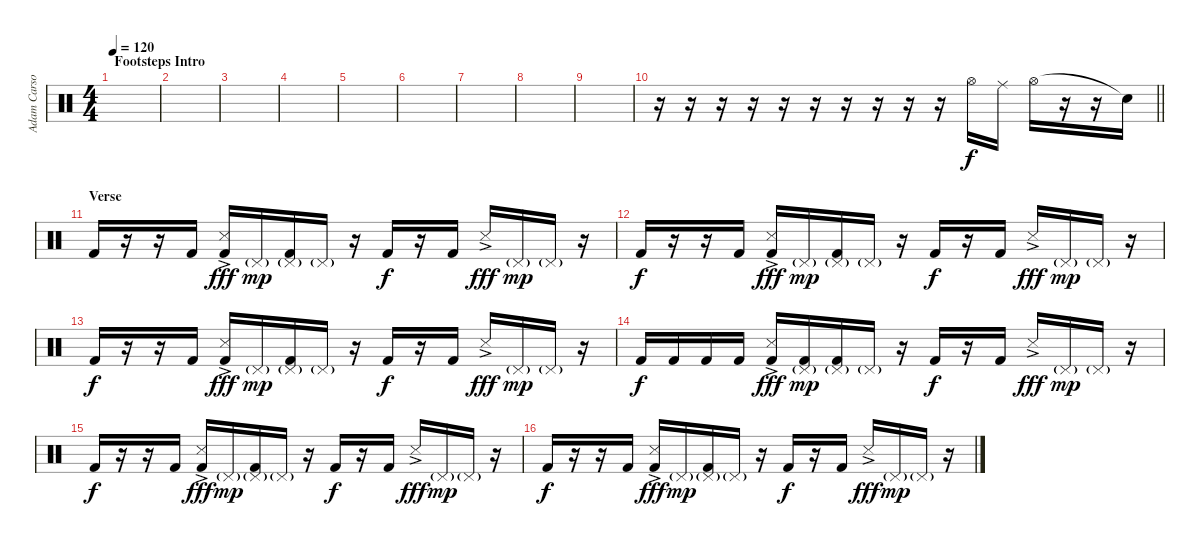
\track ("Adam Carson (Percussion)" "Adam Carso") {instrument percussion}
\staff {score}
\articulation defaults
\ts (4 4)
\section ("" "Footsteps Intro")
\tempo 120
\clef neutral
\ks c
|
|
|
|
|
|
|
|
|
\barLineRight lightlight
r.16 r.16 r.16 r.16 r.16 r.16 r.16 r.16 r.16 r.16 "Hi-Hat (open)".16 "Ride (middle)".16 "Hi-Hat (open)".16 r.16 r.16 "Snare (hit)"{t}.16 |
\section ("" "Verse")
"Kick (hit) 2".16{volume 16 balance 8} r.16 r.16 "Kick (hit) 2".16 ("Kick (hit) 2" "Snare (side stick) 3"{ac}).16{dy fff} "Pedal Hi-Hat (hit)"{g}.16{dy mp} ("Kick (hit) 2" "Pedal Hi-Hat (hit)"{g}).16 "Pedal Hi-Hat (hit)"{g}.16 r.16 "Kick (hit) 2".16{dy f} r.16 "Kick (hit) 2".16 "Snare (side stick) 3"{ac}.16{dy fff} "Pedal Hi-Hat (hit)"{g}.16{dy mp} "Pedal Hi-Hat (hit)"{g}.16 r.16 |
"Kick (hit) 2".16{dy f} r.16 r.16 "Kick (hit) 2".16 ("Kick (hit) 2" "Snare (side stick) 3"{ac}).16{dy fff} "Pedal Hi-Hat (hit)"{g}.16{dy mp} ("Kick (hit) 2" "Pedal Hi-Hat (hit)"{g}).16 "Pedal Hi-Hat (hit)"{g}.16 r.16 "Kick (hit) 2".16{dy f} r.16 "Kick (hit) 2".16 "Snare (side stick) 3"{ac}.16{dy fff} "Pedal Hi-Hat (hit)"{g}.16{dy mp} "Pedal Hi-Hat (hit)"{g}.16 r.16 |
"Kick (hit) 2".16{dy f} r.16 r.16 "Kick (hit) 2".16 ("Kick (hit) 2" "Snare (side stick) 3"{ac}).16{dy fff} "Pedal Hi-Hat (hit)"{g}.16{dy mp} ("Kick (hit) 2" "Pedal Hi-Hat (hit)"{g}).16 "Pedal Hi-Hat (hit)"{g}.16 r.16 "Kick (hit) 2".16{dy f} r.16 "Kick (hit) 2".16 "Snare (side stick) 3"{ac}.16{dy fff} "Pedal Hi-Hat (hit)"{g}.16{dy mp} "Pedal Hi-Hat (hit)"{g}.16 r.16 |
"Kick (hit) 2".16{dy f} "Kick (hit) 2".16 "Kick (hit) 2".16 "Kick (hit) 2".16 ("Kick (hit) 2" "Snare (side stick) 3"{ac}).16{dy fff} ("Kick (hit) 2" "Pedal Hi-Hat (hit)"{g}).16{dy mp} ("Kick (hit) 2" "Pedal Hi-Hat (hit)"{g}).16 "Pedal Hi-Hat (hit)"{g}.16 r.16 "Kick (hit) 2".16{dy f} r.16 "Kick (hit) 2".16 "Snare (side stick) 3"{ac}.16{dy fff} "Pedal Hi-Hat (hit)"{g}.16{dy mp} "Pedal Hi-Hat (hit)"{g}.16 r.16 |
"Kick (hit) 2".16{dy f} r.16 r.16 "Kick (hit) 2".16 ("Kick (hit) 2" "Snare (side stick) 3"{ac}).16{dy fff} "Pedal Hi-Hat (hit)"{g}.16{dy mp} ("Kick (hit) 2" "Pedal Hi-Hat (hit)"{g}).16 "Pedal Hi-Hat (hit)"{g}.16 r.16 "Kick (hit) 2".16{dy f} r.16 "Kick (hit) 2".16 "Snare (side stick) 3"{ac}.16{dy fff} "Pedal Hi-Hat (hit)"{g}.16{dy mp} "Pedal Hi-Hat (hit)"{g}.16 r.16 |
"Kick (hit) 2".16{dy f} r.16 r.16 "Kick (hit) 2".16 ("Kick (hit) 2" "Snare (side stick) 3"{ac}).16{dy fff} "Pedal Hi-Hat (hit)"{g}.16{dy mp} ("Kick (hit) 2" "Pedal Hi-Hat (hit)"{g}).16 "Pedal Hi-Hat (hit)"{g}.16 r.16 "Kick (hit) 2".16{dy f} r.16 "Kick (hit) 2".16 "Snare (side stick) 3"{ac}.16{dy fff} "Pedal Hi-Hat (hit)"{g}.16{dy mp} "Pedal Hi-Hat (hit)"{g}.16 r.16
